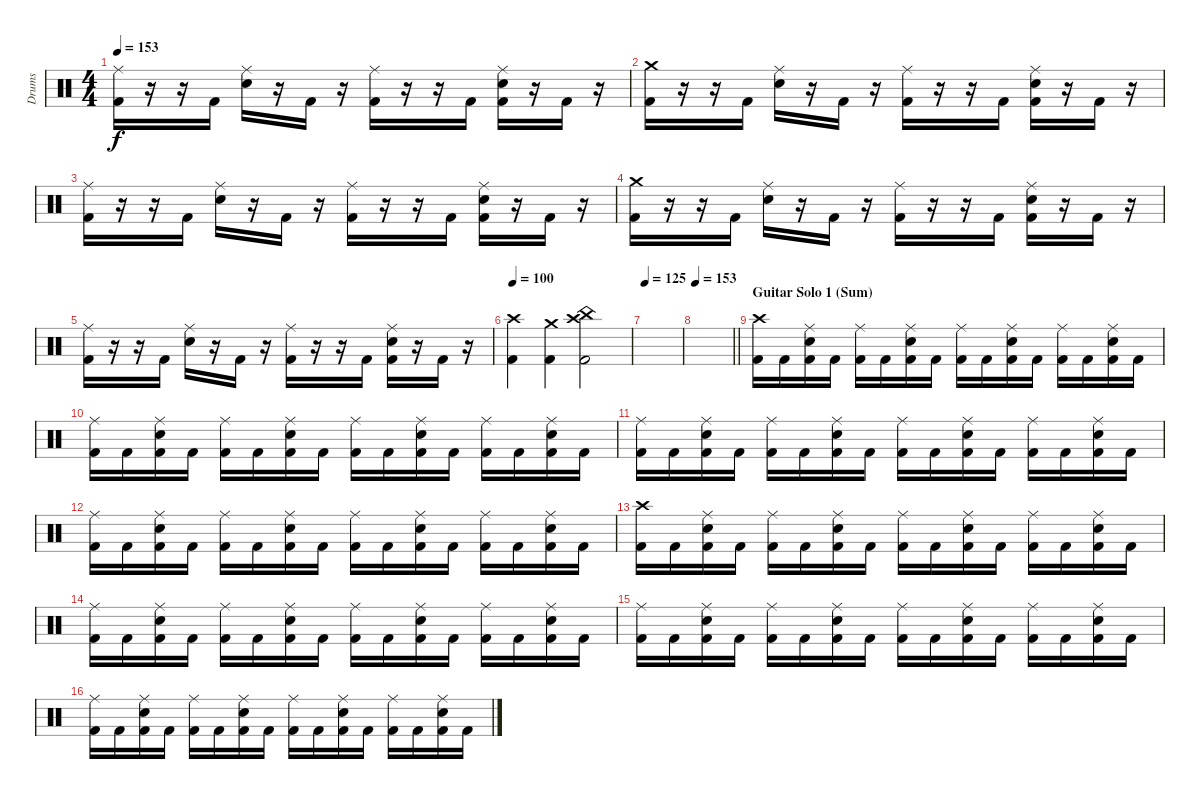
\track ("Drums" "Drums") {instrument percussion}
\staff {score}
\articulation defaults
\ts (4 4)
\tempo 153
\clef neutral
\ks c
("Ride (middle)" "Kick (hit) 2").16{dy f} r.16 r.16 "Kick (hit) 2".16 ("Ride (middle)" "Electric Snare (hit)").16 r.16 "Kick (hit) 2".16 r.16 ("Ride (middle)" "Kick (hit) 2").16 r.16 r.16 "Kick (hit) 2".16 ("Ride (middle)" "Electric Snare (hit)" "Kick (hit) 2").16 r.16 "Kick (hit) 2".16 r.16 |
("Crash medium (hit)" "Kick (hit) 2").16 r.16 r.16 "Kick (hit) 2".16 ("Ride (middle)" "Electric Snare (hit)").16 r.16 "Kick (hit) 2".16 r.16 ("Ride (middle)" "Kick (hit) 2").16 r.16 r.16 "Kick (hit) 2".16 ("Ride (middle)" "Electric Snare (hit)" "Kick (hit) 2").16 r.16 "Kick (hit) 2".16 r.16 |
("Ride (middle)" "Kick (hit) 2").16 r.16 r.16 "Kick (hit) 2".16 ("Ride (middle)" "Electric Snare (hit)").16 r.16 "Kick (hit) 2".16 r.16 ("Ride (middle)" "Kick (hit) 2").16 r.16 r.16 "Kick (hit) 2".16 ("Ride (middle)" "Electric Snare (hit)" "Kick (hit) 2").16 r.16 "Kick (hit) 2".16 r.16 |
("Crash medium (hit)" "Kick (hit) 2").16 r.16 r.16 "Kick (hit) 2".16 ("Ride (middle)" "Electric Snare (hit)").16 r.16 "Kick (hit) 2".16 r.16 ("Ride (middle)" "Kick (hit) 2").16 r.16 r.16 "Kick (hit) 2".16 ("Ride (middle)" "Electric Snare (hit)" "Kick (hit) 2").16 r.16 "Kick (hit) 2".16 r.16 |
("Ride (middle)" "Kick (hit) 2").16 r.16 r.16 "Kick (hit) 2".16 ("Ride (middle)" "Electric Snare (hit)").16 r.16 "Kick (hit) 2".16 r.16 ("Ride (middle)" "Kick (hit) 2").16 r.16 r.16 "Kick (hit) 2".16 ("Ride (middle)" "Electric Snare (hit)" "Kick (hit) 2").16 r.16 "Kick (hit) 2".16 r.16 |
\tempo 100
("Crash high (hit)" "Kick (hit) 2").4 ("Crash medium (hit)" "Kick (hit) 2").4 ("China (hit)" "Crash high (hit)" "Kick (hit) 2").2 |
\tempo 125
|
\tempo 153
\barLineRight lightlight
|
\section ("" "Guitar Solo 1 (Sum)")
("Crash high (hit)" "Kick (hit) 2").16 "Kick (hit) 2".16 ("Ride (middle)" "Electric Snare (hit)" "Kick (hit) 2").16 "Kick (hit) 2".16 ("Ride (middle)" "Kick (hit) 2").16 "Kick (hit) 2".16 ("Ride (middle)" "Electric Snare (hit)" "Kick (hit) 2").16 "Kick (hit) 2".16 ("Ride (middle)" "Kick (hit) 2").16 "Kick (hit) 2".16 ("Ride (middle)" "Electric Snare (hit)" "Kick (hit) 2").16 "Kick (hit) 2".16 ("Ride (middle)" "Kick (hit) 2").16 "Kick (hit) 2".16 ("Ride (middle)" "Electric Snare (hit)" "Kick (hit) 2").16 "Kick (hit) 2".16 |
("Ride (middle)" "Kick (hit) 2").16 "Kick (hit) 2".16 ("Ride (middle)" "Electric Snare (hit)" "Kick (hit) 2").16 "Kick (hit) 2".16 ("Ride (middle)" "Kick (hit) 2").16 "Kick (hit) 2".16 ("Ride (middle)" "Electric Snare (hit)" "Kick (hit) 2").16 "Kick (hit) 2".16 ("Ride (middle)" "Kick (hit) 2").16 "Kick (hit) 2".16 ("Ride (middle)" "Electric Snare (hit)" "Kick (hit) 2").16 "Kick (hit) 2".16 ("Ride (middle)" "Kick (hit) 2").16 "Kick (hit) 2".16 ("Ride (middle)" "Electric Snare (hit)" "Kick (hit) 2").16 "Kick (hit) 2".16 |
("Ride (middle)" "Kick (hit) 2").16 "Kick (hit) 2".16 ("Ride (middle)" "Electric Snare (hit)" "Kick (hit) 2").16 "Kick (hit) 2".16 ("Ride (middle)" "Kick (hit) 2").16 "Kick (hit) 2".16 ("Ride (middle)" "Electric Snare (hit)" "Kick (hit) 2").16 "Kick (hit) 2".16 ("Ride (middle)" "Kick (hit) 2").16 "Kick (hit) 2".16 ("Ride (middle)" "Electric Snare (hit)" "Kick (hit) 2").16 "Kick (hit) 2".16 ("Ride (middle)" "Kick (hit) 2").16 "Kick (hit) 2".16 ("Ride (middle)" "Electric Snare (hit)" "Kick (hit) 2").16 "Kick (hit) 2".16 |
("Ride (middle)" "Kick (hit) 2").16 "Kick (hit) 2".16 ("Ride (middle)" "Electric Snare (hit)" "Kick (hit) 2").16 "Kick (hit) 2".16 ("Ride (middle)" "Kick (hit) 2").16 "Kick (hit) 2".16 ("Ride (middle)" "Electric Snare (hit)" "Kick (hit) 2").16 "Kick (hit) 2".16 ("Ride (middle)" "Kick (hit) 2").16 "Kick (hit) 2".16 ("Ride (middle)" "Electric Snare (hit)" "Kick (hit) 2").16 "Kick (hit) 2".16 ("Ride (middle)" "Kick (hit) 2").16 "Kick (hit) 2".16 ("Ride (middle)" "Electric Snare (hit)" "Kick (hit) 2").16 "Kick (hit) 2".16 |
("Crash high (hit)" "Kick (hit) 2").16 "Kick (hit) 2".16 ("Ride (middle)" "Electric Snare (hit)" "Kick (hit) 2").16 "Kick (hit) 2".16 ("Ride (middle)" "Kick (hit) 2").16 "Kick (hit) 2".16 ("Ride (middle)" "Electric Snare (hit)" "Kick (hit) 2").16 "Kick (hit) 2".16 ("Ride (middle)" "Kick (hit) 2").16 "Kick (hit) 2".16 ("Ride (middle)" "Electric Snare (hit)" "Kick (hit) 2").16 "Kick (hit) 2".16 ("Ride (middle)" "Kick (hit) 2").16 "Kick (hit) 2".16 ("Ride (middle)" "Electric Snare (hit)" "Kick (hit) 2").16 "Kick (hit) 2".16 |
("Ride (middle)" "Kick (hit) 2").16 "Kick (hit) 2".16 ("Ride (middle)" "Electric Snare (hit)" "Kick (hit) 2").16 "Kick (hit) 2".16 ("Ride (middle)" "Kick (hit) 2").16 "Kick (hit) 2".16 ("Ride (middle)" "Electric Snare (hit)" "Kick (hit) 2").16 "Kick (hit) 2".16 ("Ride (middle)" "Kick (hit) 2").16 "Kick (hit) 2".16 ("Ride (middle)" "Electric Snare (hit)" "Kick (hit) 2").16 "Kick (hit) 2".16 ("Ride (middle)" "Kick (hit) 2").16 "Kick (hit) 2".16 ("Ride (middle)" "Electric Snare (hit)" "Kick (hit) 2").16 "Kick (hit) 2".16 |
("Ride (middle)" "Kick (hit) 2").16 "Kick (hit) 2".16 ("Ride (middle)" "Electric Snare (hit)" "Kick (hit) 2").16 "Kick (hit) 2".16 ("Ride (middle)" "Kick (hit) 2").16 "Kick (hit) 2".16 ("Ride (middle)" "Electric Snare (hit)" "Kick (hit) 2").16 "Kick (hit) 2".16 ("Ride (middle)" "Kick (hit) 2").16 "Kick (hit) 2".16 ("Ride (middle)" "Electric Snare (hit)" "Kick (hit) 2").16 "Kick (hit) 2".16 ("Ride (middle)" "Kick (hit) 2").16 "Kick (hit) 2".16 ("Ride (middle)" "Electric Snare (hit)" "Kick (hit) 2").16 "Kick (hit) 2".16 |
("Ride (middle)" "Kick (hit) 2").16 "Kick (hit) 2".16 ("Ride (middle)" "Electric Snare (hit)" "Kick (hit) 2").16 "Kick (hit) 2".16 ("Ride (middle)" "Kick (hit) 2").16 "Kick (hit) 2".16 ("Ride (middle)" "Electric Snare (hit)" "Kick (hit) 2").16 "Kick (hit) 2".16 ("Ride (middle)" "Kick (hit) 2").16 "Kick (hit) 2".16 ("Ride (middle)" "Electric Snare (hit)" "Kick (hit) 2").16 "Kick (hit) 2".16 ("Ride (middle)" "Kick (hit) 2").16 "Kick (hit) 2".16 ("Ride (middle)" "Electric Snare (hit)" "Kick (hit) 2").16 "Kick (hit) 2".16
